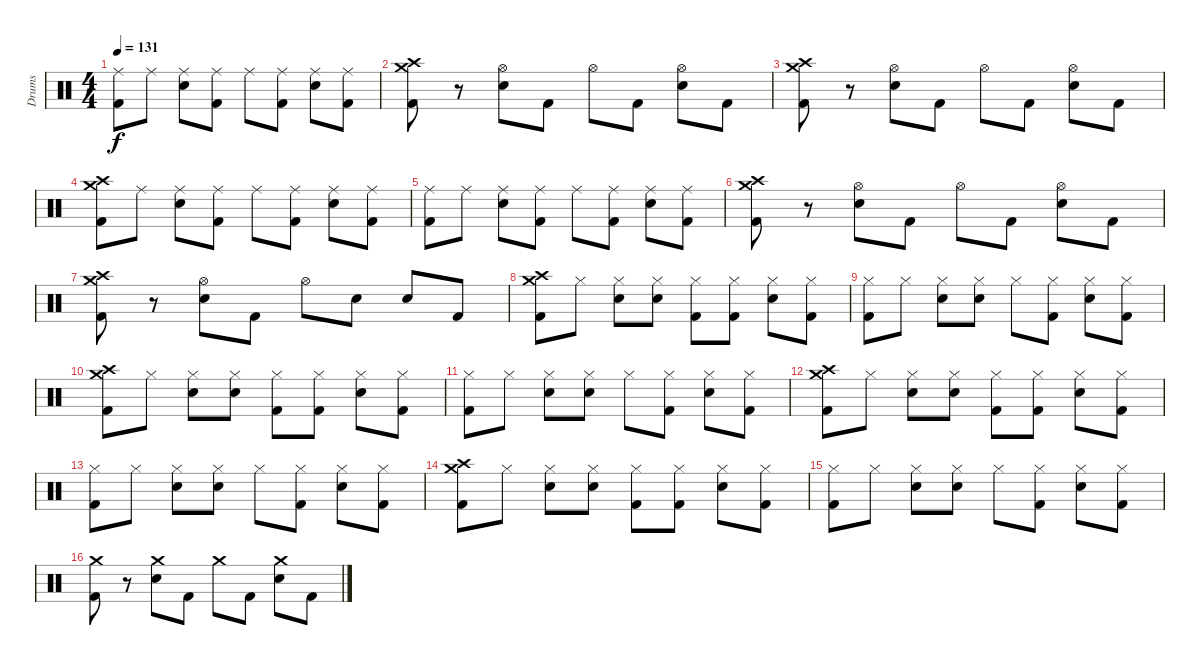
\track ("Drums" "Drums") {instrument percussion}
\staff {score}
\articulation defaults
\ts (4 4)
\tempo 131
\clef neutral
\ks c
("Ride (middle)" "Kick (hit) 2").8{dy f} "Ride (middle)".8 ("Ride (middle)" "Snare (hit) 2").8 ("Ride (middle)" "Kick (hit) 2").8 "Ride (middle)".8 ("Ride (middle)" "Kick (hit) 2").8 ("Ride (middle)" "Snare (hit) 2").8 ("Ride (middle)" "Kick (hit) 2").8 |
("Crash high (hit)" "Crash medium (hit)" "Kick (hit) 2").8 r.8 ("Hi-Hat (open)" "Snare (hit) 2").8 "Kick (hit) 2".8 "Hi-Hat (open)".8 "Kick (hit) 2".8 ("Hi-Hat (open)" "Snare (hit) 2").8 "Kick (hit) 2".8 |
("Crash high (hit)" "Crash medium (hit)" "Kick (hit) 2").8 r.8 ("Hi-Hat (open)" "Snare (hit) 2").8 "Kick (hit) 2".8 "Hi-Hat (open)".8 "Kick (hit) 2".8 ("Hi-Hat (open)" "Snare (hit) 2").8 "Kick (hit) 2".8 |
("Crash high (hit)" "Crash medium (hit)" "Kick (hit) 2").8 "Ride (middle)".8 ("Ride (middle)" "Snare (hit) 2").8 ("Ride (middle)" "Kick (hit) 2").8 "Ride (middle)".8 ("Ride (middle)" "Kick (hit) 2").8 ("Ride (middle)" "Snare (hit) 2").8 ("Ride (middle)" "Kick (hit) 2").8 |
("Ride (middle)" "Kick (hit) 2").8 "Ride (middle)".8 ("Ride (middle)" "Snare (hit) 2").8 ("Ride (middle)" "Kick (hit) 2").8 "Ride (middle)".8 ("Ride (middle)" "Kick (hit) 2").8 ("Ride (middle)" "Snare (hit) 2").8 ("Ride (middle)" "Kick (hit) 2").8 |
("Crash high (hit)" "Crash medium (hit)" "Kick (hit) 2").8 r.8 ("Hi-Hat (open)" "Snare (hit) 2").8 "Kick (hit) 2".8 "Hi-Hat (open)".8 "Kick (hit) 2".8 ("Hi-Hat (open)" "Snare (hit) 2").8 "Kick (hit) 2".8 |
("Crash high (hit)" "Crash medium (hit)" "Kick (hit) 2").8 r.8 ("Hi-Hat (open)" "Snare (hit) 2").8 "Kick (hit) 2".8 "Hi-Hat (open)".8 "Snare (hit) 2".8 "Snare (hit) 2".8 "Kick (hit) 2".8 |
("Crash high (hit)" "Crash medium (hit)" "Kick (hit) 2").8 "Hi-Hat (closed)".8 ("Hi-Hat (closed)" "Snare (hit) 2").8 ("Hi-Hat (closed)" "Snare (hit) 2").8 ("Hi-Hat (closed)" "Kick (hit) 2").8 ("Hi-Hat (closed)" "Kick (hit) 2").8 ("Hi-Hat (closed)" "Snare (hit) 2").8 ("Hi-Hat (closed)" "Kick (hit) 2").8 |
("Hi-Hat (closed)" "Kick (hit) 2").8 "Hi-Hat (closed)".8 ("Hi-Hat (closed)" "Snare (hit) 2").8 ("Hi-Hat (closed)" "Snare (hit) 2").8 "Hi-Hat (closed)".8 ("Hi-Hat (closed)" "Kick (hit) 2").8 ("Hi-Hat (closed)" "Snare (hit) 2").8 ("Hi-Hat (closed)" "Kick (hit) 2").8 |
("Crash high (hit)" "Crash medium (hit)" "Kick (hit) 2").8 "Hi-Hat (closed)".8 ("Hi-Hat (closed)" "Snare (hit) 2").8 ("Hi-Hat (closed)" "Snare (hit) 2").8 ("Hi-Hat (closed)" "Kick (hit) 2").8 ("Hi-Hat (closed)" "Kick (hit) 2").8 ("Hi-Hat (closed)" "Snare (hit) 2").8 ("Hi-Hat (closed)" "Kick (hit) 2").8 |
("Hi-Hat (closed)" "Kick (hit) 2").8 "Hi-Hat (closed)".8 ("Hi-Hat (closed)" "Snare (hit) 2").8 ("Hi-Hat (closed)" "Snare (hit) 2").8 "Hi-Hat (closed)".8 ("Hi-Hat (closed)" "Kick (hit) 2").8 ("Hi-Hat (closed)" "Snare (hit) 2").8 ("Hi-Hat (closed)" "Kick (hit) 2").8 |
("Crash high (hit)" "Crash medium (hit)" "Kick (hit) 2").8 "Hi-Hat (closed)".8 ("Hi-Hat (closed)" "Snare (hit) 2").8 ("Hi-Hat (closed)" "Snare (hit) 2").8 ("Hi-Hat (closed)" "Kick (hit) 2").8 ("Hi-Hat (closed)" "Kick (hit) 2").8 ("Hi-Hat (closed)" "Snare (hit) 2").8 ("Hi-Hat (closed)" "Kick (hit) 2").8 |
("Hi-Hat (closed)" "Kick (hit) 2").8 "Hi-Hat (closed)".8 ("Hi-Hat (closed)" "Snare (hit) 2").8 ("Hi-Hat (closed)" "Snare (hit) 2").8 "Hi-Hat (closed)".8 ("Hi-Hat (closed)" "Kick (hit) 2").8 ("Hi-Hat (closed)" "Snare (hit) 2").8 ("Hi-Hat (closed)" "Kick (hit) 2").8 |
("Crash high (hit)" "Crash medium (hit)" "Kick (hit) 2").8 "Hi-Hat (closed)".8 ("Hi-Hat (closed)" "Snare (hit) 2").8 ("Hi-Hat (closed)" "Snare (hit) 2").8 ("Hi-Hat (closed)" "Kick (hit) 2").8 ("Hi-Hat (closed)" "Kick (hit) 2").8 ("Hi-Hat (closed)" "Snare (hit) 2").8 ("Hi-Hat (closed)" "Kick (hit) 2").8 |
("Hi-Hat (closed)" "Kick (hit) 2").8 "Hi-Hat (closed)".8 ("Hi-Hat (closed)" "Snare (hit) 2").8 ("Hi-Hat (closed)" "Snare (hit) 2").8 "Hi-Hat (closed)".8 ("Hi-Hat (closed)" "Kick (hit) 2").8 ("Hi-Hat (closed)" "Snare (hit) 2").8 ("Hi-Hat (closed)" "Kick (hit) 2").8 |
("Crash medium (hit)" "Kick (hit) 2").8 r.8 ("Crash medium (hit)" "Snare (hit) 2").8 "Kick (hit) 2".8 "Crash medium (hit)".8 "Kick (hit) 2".8 ("Crash medium (hit)" "Snare (hit) 2").8 "Kick (hit) 2".8
